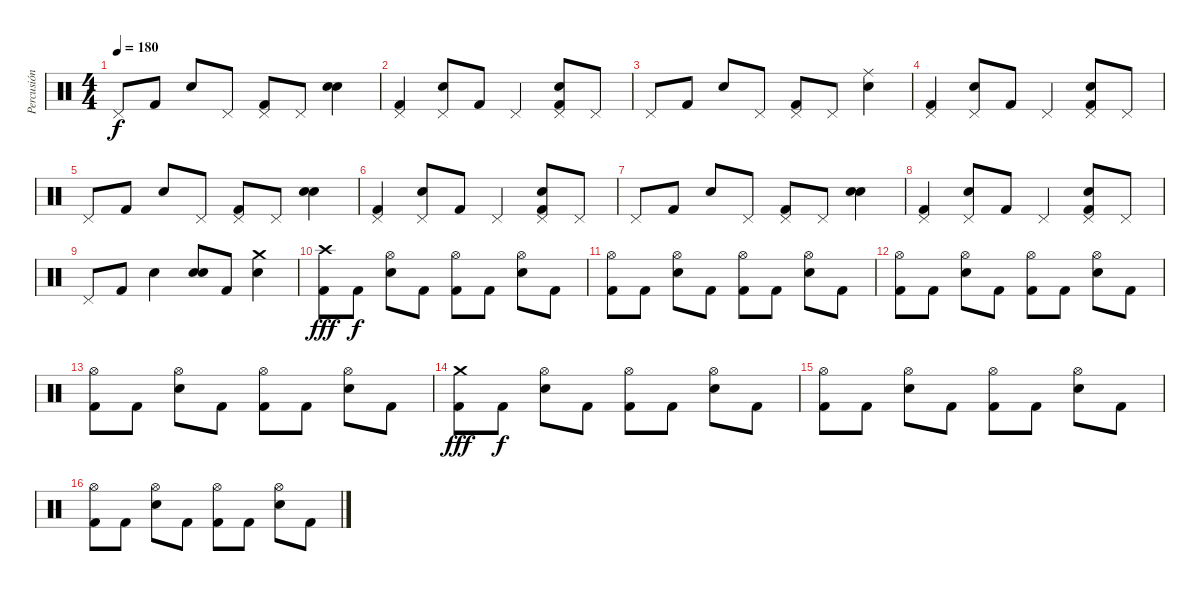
\track ("Percusión" "Percusión") {instrument percussion}
\staff {score}
\articulation defaults
\ts (4 4)
\tempo 180
\clef neutral
\ks c "Pedal Hi-Hat (hit)".8{dy f} "Kick (hit) 2".8 "Electric Snare (hit)".8 "Pedal Hi-Hat (hit)".8
("Pedal Hi-Hat (hit)" "Kick (hit) 2").8 "Pedal Hi-Hat (hit)".8 ("Electric Snare (hit)" "Electric Snare (hit)").4{bd 240} |
("Pedal Hi-Hat (hit)" "Kick (hit) 2").4 ("Pedal Hi-Hat (hit)" "Electric Snare (hit)").8 "Kick (hit) 2".8 "Pedal Hi-Hat (hit)".4 ("Pedal Hi-Hat (hit)" "Electric Snare (hit)" "Kick (hit) 2").8 "Pedal Hi-Hat (hit)".8 |
"Pedal Hi-Hat (hit)".8 "Kick (hit) 2".8 "Electric Snare (hit)".8 "Pedal Hi-Hat (hit)".8 ("Pedal Hi-Hat (hit)" "Kick (hit) 2").8 "Pedal Hi-Hat (hit)".8 ("Ride (middle)" "Electric Snare (hit)").4 |
("Pedal Hi-Hat (hit)" "Kick (hit) 2").4 ("Pedal Hi-Hat (hit)" "Electric Snare (hit)").8 "Kick (hit) 2".8 "Pedal Hi-Hat (hit)".4 ("Pedal Hi-Hat (hit)" "Electric Snare (hit)" "Kick (hit) 2").8 "Pedal Hi-Hat (hit)".8 |
"Pedal Hi-Hat (hit)".8 "Kick (hit) 2".8 "Electric Snare (hit)".8 "Pedal Hi-Hat (hit)".8 ("Pedal Hi-Hat (hit)" "Kick (hit) 2").8 "Pedal Hi-Hat (hit)".8 ("Electric Snare (hit)" "Electric Snare (hit)").4{bd 240} |
("Pedal Hi-Hat (hit)" "Kick (hit) 2").4 ("Pedal Hi-Hat (hit)" "Electric Snare (hit)").8 "Kick (hit) 2".8 "Pedal Hi-Hat (hit)".4 ("Pedal Hi-Hat (hit)" "Electric Snare (hit)" "Kick (hit) 2").8 "Pedal Hi-Hat (hit)".8 |
"Pedal Hi-Hat (hit)".8 "Kick (hit) 2".8 "Electric Snare (hit)".8 "Pedal Hi-Hat (hit)".8 ("Pedal Hi-Hat (hit)" "Kick (hit) 2").8 "Pedal Hi-Hat (hit)".8 ("Electric Snare (hit)" "Electric Snare (hit)").4{bd 240} |
("Pedal Hi-Hat (hit)" "Kick (hit) 2").4 ("Pedal Hi-Hat (hit)" "Electric Snare (hit)").8 "Kick (hit) 2".8 "Pedal Hi-Hat (hit)".4 ("Pedal Hi-Hat (hit)" "Electric Snare (hit)" "Kick (hit) 2").8 "Pedal Hi-Hat (hit)".8 |
"Pedal Hi-Hat (hit)".8 "Kick (hit) 2".8 "Electric Snare (hit)".4 ("Electric Snare (hit)" "Electric Snare (hit)").8{bd 240} "Kick (hit) 2".8 ("Crash medium (hit)" "Electric Snare (hit)").4 |
("Crash high (hit)" "Kick (hit) 2").8{dy fff} "Kick (hit) 2".8{dy f} ("Hi-Hat (open)" "Electric Snare (hit)").8 "Kick (hit) 2".8 ("Hi-Hat (open)" "Kick (hit) 2").8 "Kick (hit) 2".8 ("Hi-Hat (open)" "Electric Snare (hit)").8 "Kick (hit) 2".8 |
("Hi-Hat (open)" "Kick (hit) 2").8 "Kick (hit) 2".8 ("Hi-Hat (open)" "Electric Snare (hit)").8 "Kick (hit) 2".8 ("Hi-Hat (open)" "Kick (hit) 2").8 "Kick (hit) 2".8 ("Hi-Hat (open)" "Electric Snare (hit)").8 "Kick (hit) 2".8 |
("Hi-Hat (open)" "Kick (hit) 2").8 "Kick (hit) 2".8 ("Hi-Hat (open)" "Electric Snare (hit)").8 "Kick (hit) 2".8 ("Hi-Hat (open)" "Kick (hit) 2").8 "Kick (hit) 2".8 ("Hi-Hat (open)" "Electric Snare (hit)").8 "Kick (hit) 2".8 |
("Hi-Hat (open)" "Kick (hit) 2").8 "Kick (hit) 2".8 ("Hi-Hat (open)" "Electric Snare (hit)").8 "Kick (hit) 2".8 ("Hi-Hat (open)" "Kick (hit) 2").8 "Kick (hit) 2".8 ("Hi-Hat (open)" "Electric Snare (hit)").8 "Kick (hit) 2".8 |
("Crash medium (hit)" "Kick (hit) 2").8{dy fff} "Kick (hit) 2".8{dy f} ("Hi-Hat (open)" "Electric Snare (hit)").8 "Kick (hit) 2".8 ("Hi-Hat (open)" "Kick (hit) 2").8 "Kick (hit) 2".8 ("Hi-Hat (open)" "Electric Snare (hit)").8 "Kick (hit) 2".8 |
("Hi-Hat (open)" "Kick (hit) 2").8 "Kick (hit) 2".8 ("Hi-Hat (open)" "Electric Snare (hit)").8 "Kick (hit) 2".8 ("Hi-Hat (open)" "Kick (hit) 2").8 "Kick (hit) 2".8 ("Hi-Hat (open)" "Electric Snare (hit)").8 "Kick (hit) 2".8 |
("Hi-Hat (open)" "Kick (hit) 2").8 "Kick (hit) 2".8 ("Hi-Hat (open)" "Electric Snare (hit)").8 "Kick (hit) 2".8 ("Hi-Hat (open)" "Kick (hit) 2").8 "Kick (hit) 2".8 ("Hi-Hat (open)" "Electric Snare (hit)").8 "Kick (hit) 2".8
